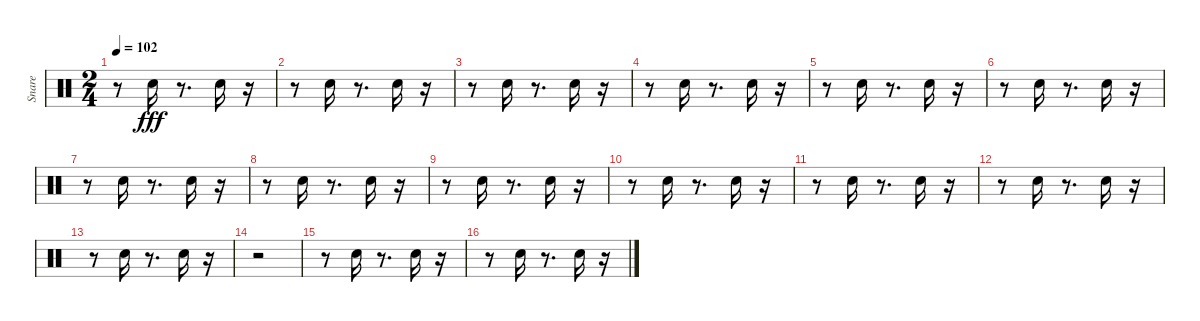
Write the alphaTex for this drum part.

\track ("Snare" "Snare") {instrument percussion}
\staff {score}
\articulation defaults
\ts (2 4)
\tempo 102
\clef neutral
\ks c
r.8{dy fff} "Electric Snare (hit)".16 r.8{d} "Electric Snare (hit)".16 r.16 |
r.8 "Electric Snare (hit)".16 r.8{d} "Electric Snare (hit)".16 r.16 |
r.8 "Electric Snare (hit)".16 r.8{d} "Electric Snare (hit)".16 r.16 |
r.8 "Electric Snare (hit)".16 r.8{d} "Electric Snare (hit)".16 r.16 |
r.8 "Electric Snare (hit)".16 r.8{d} "Electric Snare (hit)".16 r.16 |
r.8 "Electric Snare (hit)".16 r.8{d} "Electric Snare (hit)".16 r.16 |
r.8 "Electric Snare (hit)".16 r.8{d} "Electric Snare (hit)".16 r.16 |
r.8 "Electric Snare (hit)".16 r.8{d} "Electric Snare (hit)".16 r.16 |
r.8 "Electric Snare (hit)".16 r.8{d} "Electric Snare (hit)".16 r.16 |
r.8 "Electric Snare (hit)".16 r.8{d} "Electric Snare (hit)".16 r.16 |
r.8 "Electric Snare (hit)".16 r.8{d} "Electric Snare (hit)".16 r.16 |
r.8 "Electric Snare (hit)".16 r.8{d} "Electric Snare (hit)".16 r.16 |
r.8 "Electric Snare (hit)".16 r.8{d} "Electric Snare (hit)".16 r.16 |
r.2 |
r.8 "Electric Snare (hit)".16 r.8{d} "Electric Snare (hit)".16 r.16 |
r.8 "Electric Snare (hit)".16 r.8{d} "Electric Snare (hit)".16 r.16
